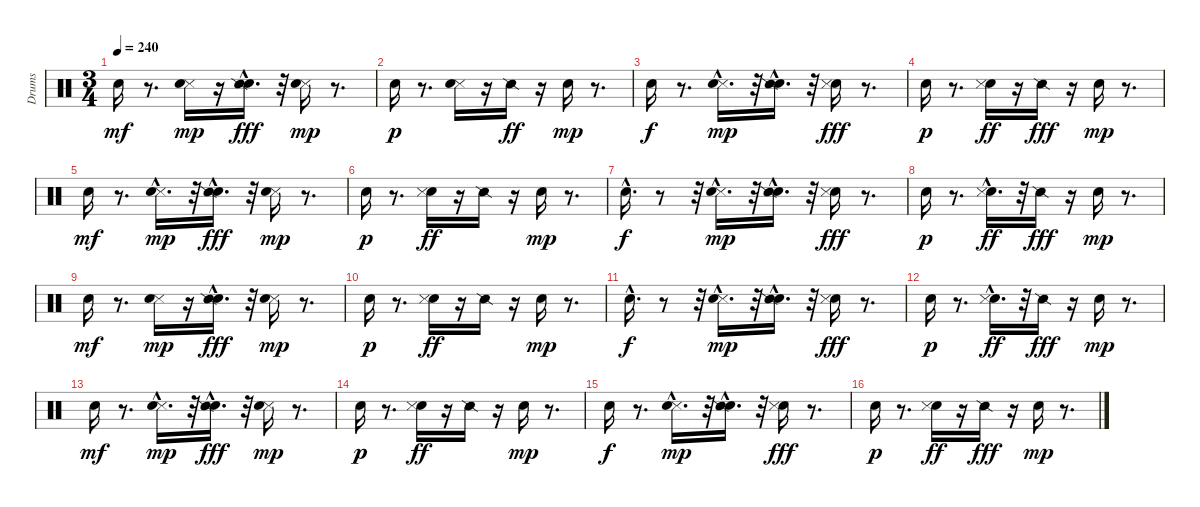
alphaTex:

\track ("Drums" "Drums") {instrument percussion}
\staff {score}
\articulation defaults
\ts (3 4)
\tempo 240
\clef neutral
\ks c "Electric Snare (hit)".16{dy mf}
r.8{d} ("Snare (side stick) 3" "Electric Snare (hit)").16{dy mp} r.16 ("Electric Snare (hit)" "Snare (side stick) 2"{hac}).16{d dy fff} r.32 ("Snare (side stick) 3" "Electric Snare (hit)").16{dy mp} r.8{d} |
"Electric Snare (hit)".16{dy p} r.8{d} ("Snare (side stick) 3" "Electric Snare (hit)").16 r.16 "Snare (side stick) 2".16{dy ff} r.16 "Electric Snare (hit)".16{dy mp} r.8{d} |
"Electric Snare (hit)".16{dy f} r.8{d} ("Snare (side stick) 3"{hac} "Electric Snare (hit)").16{d dy mp} r.32 ("Electric Snare (hit)" "Snare (side stick) 2"{hac}).16{d} r.32 ("Electric Snare (hit)" "Snare (side stick) 3").16{dy fff} r.8{d} |
"Electric Snare (hit)".16{dy p} r.8{d} ("Electric Snare (hit)" "Snare (side stick) 3").16{dy ff} r.16 "Snare (side stick) 2".16{dy fff} r.16 "Electric Snare (hit)".16{dy mp} r.8{d} |
"Electric Snare (hit)".16{dy mf} r.8{d} ("Snare (side stick) 3"{hac} "Electric Snare (hit)").16{d dy mp} r.32 ("Electric Snare (hit)" "Snare (side stick) 2"{hac}).16{d dy fff} r.32 ("Snare (side stick) 3" "Electric Snare (hit)").16{dy mp} r.8{d} |
"Electric Snare (hit)".16{dy p} r.8{d} ("Electric Snare (hit)" "Snare (side stick) 3").16{dy ff} r.16 "Snare (side stick) 2".16 r.16 "Electric Snare (hit)".16{dy mp} r.8{d} |
"Electric Snare (hit)"{hac}.16{d dy f} r.8 r.32 ("Snare (side stick) 3"{hac} "Electric Snare (hit)").16{d dy mp} r.32 ("Electric Snare (hit)" "Snare (side stick) 2"{hac}).16{d} r.32 ("Electric Snare (hit)" "Snare (side stick) 3").16{dy fff} r.8{d} |
"Electric Snare (hit)".16{dy p} r.8{d} ("Electric Snare (hit)" "Snare (side stick) 3"{hac}).16{d dy ff} r.32 "Snare (side stick) 2".16{dy fff} r.16 "Electric Snare (hit)".16{dy mp} r.8{d} |
"Electric Snare (hit)".16{dy mf} r.8{d} ("Snare (side stick) 3" "Electric Snare (hit)").16{dy mp} r.16 ("Electric Snare (hit)" "Snare (side stick) 2"{hac}).16{d dy fff} r.32 ("Snare (side stick) 3" "Electric Snare (hit)").16{dy mp} r.8{d} |
"Electric Snare (hit)".16{dy p} r.8{d} ("Electric Snare (hit)" "Snare (side stick) 3").16{dy ff} r.16 "Snare (side stick) 2".16 r.16 "Electric Snare (hit)".16{dy mp} r.8{d} |
"Electric Snare (hit)"{hac}.16{d dy f} r.8 r.32 ("Snare (side stick) 3"{hac} "Electric Snare (hit)").16{d dy mp} r.32 ("Electric Snare (hit)" "Snare (side stick) 2"{hac}).16{d} r.32 ("Electric Snare (hit)" "Snare (side stick) 3").16{dy fff} r.8{d} |
"Electric Snare (hit)".16{dy p} r.8{d} ("Electric Snare (hit)" "Snare (side stick) 3"{hac}).16{d dy ff} r.32 "Snare (side stick) 2".16{dy fff} r.16 "Electric Snare (hit)".16{dy mp} r.8{d} |
"Electric Snare (hit)".16{dy mf} r.8{d} ("Snare (side stick) 3"{hac} "Electric Snare (hit)").16{d dy mp} r.32 ("Electric Snare (hit)" "Snare (side stick) 2"{hac}).16{d dy fff} r.32 ("Snare (side stick) 3" "Electric Snare (hit)").16{dy mp} r.8{d} |
"Electric Snare (hit)".16{dy p} r.8{d} ("Electric Snare (hit)" "Snare (side stick) 3").16{dy ff} r.16 "Snare (side stick) 2".16 r.16 "Electric Snare (hit)".16{dy mp} r.8{d} |
"Electric Snare (hit)".16{dy f} r.8{d} ("Snare (side stick) 3"{hac} "Electric Snare (hit)").16{d dy mp} r.32 ("Electric Snare (hit)" "Snare (side stick) 2"{hac}).16{d} r.32 ("Electric Snare (hit)" "Snare (side stick) 3").16{dy fff} r.8{d} |
"Electric Snare (hit)".16{dy p} r.8{d} ("Electric Snare (hit)" "Snare (side stick) 3").16{dy ff} r.16 "Snare (side stick) 2".16{dy fff} r.16 "Electric Snare (hit)".16{dy mp} r.8{d}
